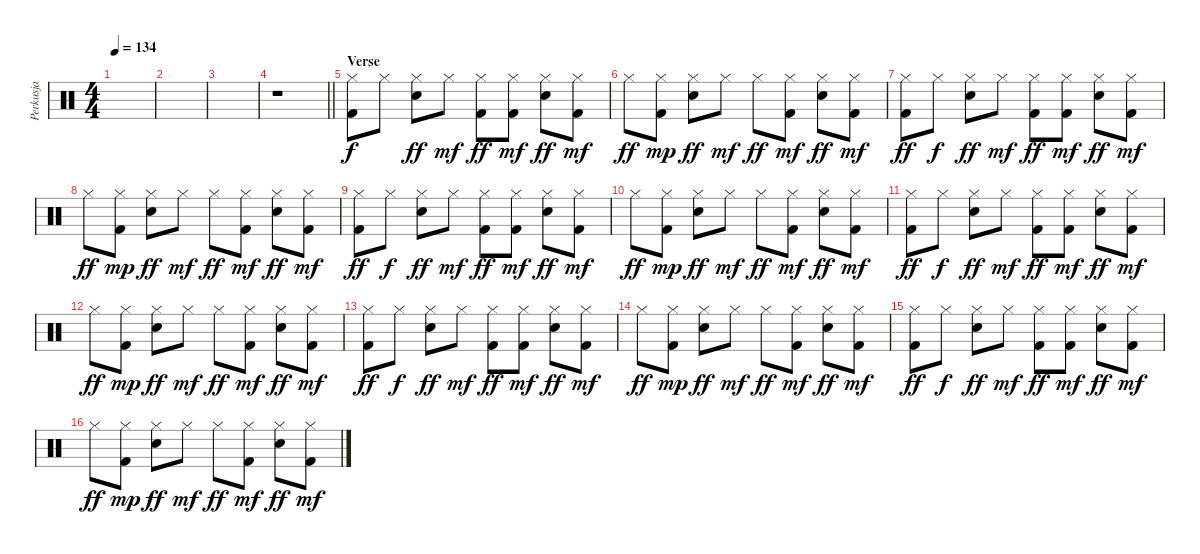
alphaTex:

\track ("Perkusja" "Perkusja") {instrument percussion}
\staff {score}
\articulation defaults
\ts (4 4)
\tempo 134
\clef neutral
\ks c
|
|
|
\barLineRight lightlight
r.1 |
\section ("" "Verse")
("Hi-Hat (closed)" "Kick (hit) 2").8 "Hi-Hat (closed)".8{dy f} ("Hi-Hat (closed)" "Electric Snare (hit)").8{dy ff} "Hi-Hat (closed)".8{dy mf} ("Kick (hit) 2" "Hi-Hat (closed)").8{dy ff} ("Kick (hit) 2" "Hi-Hat (closed)").8{dy mf} ("Electric Snare (hit)" "Hi-Hat (closed)").8{dy ff} ("Kick (hit) 2" "Hi-Hat (closed)").8{dy mf} |
"Hi-Hat (closed)".8{dy ff} ("Hi-Hat (closed)" "Kick (hit) 2").8{dy mp} ("Electric Snare (hit)" "Hi-Hat (closed)").8{dy ff} "Hi-Hat (closed)".8{dy mf} "Hi-Hat (closed)".8{dy ff} ("Hi-Hat (closed)" "Kick (hit) 2").8{dy mf} ("Electric Snare (hit)" "Hi-Hat (closed)").8{dy ff} ("Kick (hit) 2" "Hi-Hat (closed)").8{dy mf} |
("Kick (hit) 2" "Hi-Hat (closed)").8{dy ff} "Hi-Hat (closed)".8{dy f} ("Electric Snare (hit)" "Hi-Hat (closed)").8{dy ff} "Hi-Hat (closed)".8{dy mf} ("Hi-Hat (closed)" "Kick (hit) 2").8{dy ff} ("Hi-Hat (closed)" "Kick (hit) 2").8{dy mf} ("Electric Snare (hit)" "Hi-Hat (closed)").8{dy ff} ("Kick (hit) 2" "Hi-Hat (closed)").8{dy mf} |
"Hi-Hat (closed)".8{dy ff} ("Hi-Hat (closed)" "Kick (hit) 2").8{dy mp} ("Electric Snare (hit)" "Hi-Hat (closed)").8{dy ff} "Hi-Hat (closed)".8{dy mf} "Hi-Hat (closed)".8{dy ff} ("Kick (hit) 2" "Hi-Hat (closed)").8{dy mf} ("Electric Snare (hit)" "Hi-Hat (closed)").8{dy ff} ("Kick (hit) 2" "Hi-Hat (closed)").8{dy mf} |
("Kick (hit) 2" "Hi-Hat (closed)").8{dy ff} "Hi-Hat (closed)".8{dy f} ("Hi-Hat (closed)" "Electric Snare (hit)").8{dy ff} "Hi-Hat (closed)".8{dy mf} ("Hi-Hat (closed)" "Kick (hit) 2").8{dy ff} ("Hi-Hat (closed)" "Kick (hit) 2").8{dy mf} ("Electric Snare (hit)" "Hi-Hat (closed)").8{dy ff} ("Kick (hit) 2" "Hi-Hat (closed)").8{dy mf} |
"Hi-Hat (closed)".8{dy ff} ("Hi-Hat (closed)" "Kick (hit) 2").8{dy mp} ("Hi-Hat (closed)" "Electric Snare (hit)").8{dy ff} "Hi-Hat (closed)".8{dy mf} "Hi-Hat (closed)".8{dy ff} ("Kick (hit) 2" "Hi-Hat (closed)").8{dy mf} ("Electric Snare (hit)" "Hi-Hat (closed)").8{dy ff} ("Hi-Hat (closed)" "Kick (hit) 2").8{dy mf} |
("Hi-Hat (closed)" "Kick (hit) 2").8{dy ff} "Hi-Hat (closed)".8{dy f} ("Hi-Hat (closed)" "Electric Snare (hit)").8{dy ff} "Hi-Hat (closed)".8{dy mf} ("Hi-Hat (closed)" "Kick (hit) 2").8{dy ff} ("Hi-Hat (closed)" "Kick (hit) 2").8{dy mf} ("Hi-Hat (closed)" "Electric Snare (hit)").8{dy ff} ("Hi-Hat (closed)" "Kick (hit) 2").8{dy mf} |
"Hi-Hat (closed)".8{dy ff} ("Kick (hit) 2" "Hi-Hat (closed)").8{dy mp} ("Electric Snare (hit)" "Hi-Hat (closed)").8{dy ff} "Hi-Hat (closed)".8{dy mf} "Hi-Hat (closed)".8{dy ff} ("Kick (hit) 2" "Hi-Hat (closed)").8{dy mf} ("Electric Snare (hit)" "Hi-Hat (closed)").8{dy ff} ("Kick (hit) 2" "Hi-Hat (closed)").8{dy mf} |
("Hi-Hat (closed)" "Kick (hit) 2").8{dy ff} "Hi-Hat (closed)".8{dy f} ("Electric Snare (hit)" "Hi-Hat (closed)").8{dy ff} "Hi-Hat (closed)".8{dy mf} ("Kick (hit) 2" "Hi-Hat (closed)").8{dy ff} ("Hi-Hat (closed)" "Kick (hit) 2").8{dy mf} ("Electric Snare (hit)" "Hi-Hat (closed)").8{dy ff} ("Kick (hit) 2" "Hi-Hat (closed)").8{dy mf} |
"Hi-Hat (closed)".8{dy ff} ("Kick (hit) 2" "Hi-Hat (closed)").8{dy mp} ("Hi-Hat (closed)" "Electric Snare (hit)").8{dy ff} "Hi-Hat (closed)".8{dy mf} "Hi-Hat (closed)".8{dy ff} ("Hi-Hat (closed)" "Kick (hit) 2").8{dy mf} ("Electric Snare (hit)" "Hi-Hat (closed)").8{dy ff} ("Kick (hit) 2" "Hi-Hat (closed)").8{dy mf} |
("Hi-Hat (closed)" "Kick (hit) 2").8{dy ff} "Hi-Hat (closed)".8{dy f} ("Hi-Hat (closed)" "Electric Snare (hit)").8{dy ff} "Hi-Hat (closed)".8{dy mf} ("Hi-Hat (closed)" "Kick (hit) 2").8{dy ff} ("Kick (hit) 2" "Hi-Hat (closed)").8{dy mf} ("Electric Snare (hit)" "Hi-Hat (closed)").8{dy ff} ("Kick (hit) 2" "Hi-Hat (closed)").8{dy mf} |
"Hi-Hat (closed)".8{dy ff} ("Kick (hit) 2" "Hi-Hat (closed)").8{dy mp} ("Electric Snare (hit)" "Hi-Hat (closed)").8{dy ff} "Hi-Hat (closed)".8{dy mf} "Hi-Hat (closed)".8{dy ff} ("Kick (hit) 2" "Hi-Hat (closed)").8{dy mf} ("Hi-Hat (closed)" "Electric Snare (hit)").8{dy ff} ("Kick (hit) 2" "Hi-Hat (closed)").8{dy mf}
